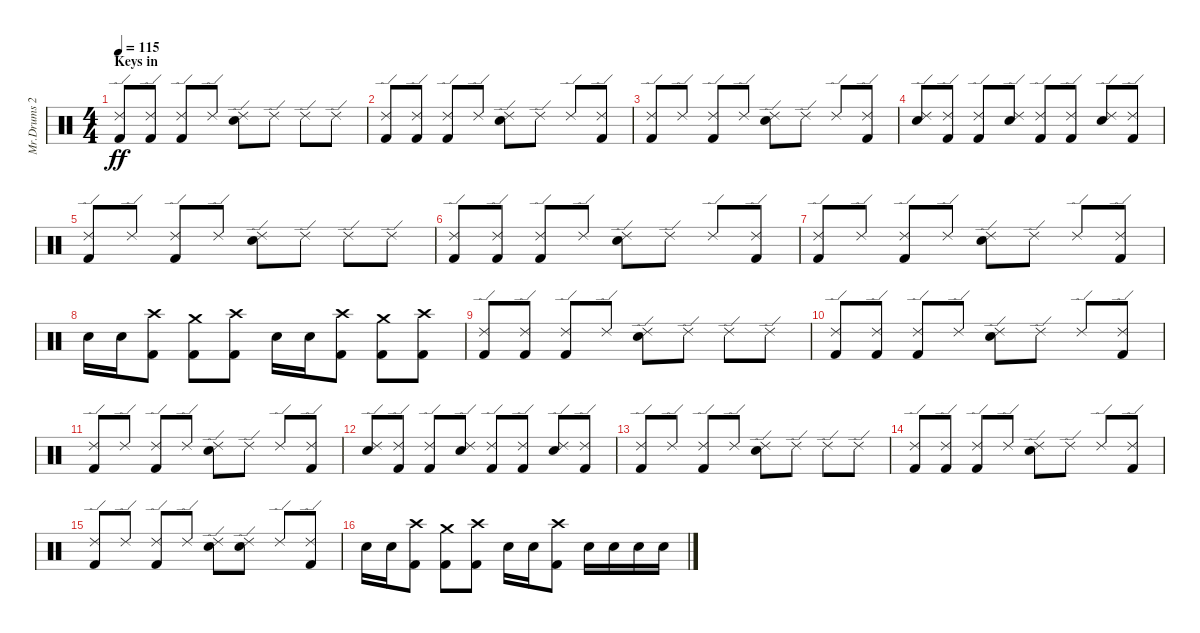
\track ("Mr.Drums 2" "Mr.Drums 2") {instrument percussion}
\staff {score}
\articulation defaults
\ts (4 4)
\section ("" "Keys in ")
\tempo 115
\clef neutral
\ks c
("Ride (edge) 2" "Kick (hit) 2").8{dy ff} ("Ride (edge) 2" "Kick (hit) 2").8 ("Ride (edge) 2" "Kick (hit) 2").8 "Ride (edge) 2".8 ("Ride (edge) 2" "Electric Snare (hit)").8 "Ride (edge) 2".8 "Ride (edge) 2".8 "Ride (edge) 2".8 |
("Ride (edge) 2" "Kick (hit) 2").8 ("Ride (edge) 2" "Kick (hit) 2").8 ("Ride (edge) 2" "Kick (hit) 2").8 "Ride (edge) 2".8 ("Ride (edge) 2" "Electric Snare (hit)").8 "Ride (edge) 2".8 "Ride (edge) 2".8 ("Ride (edge) 2" "Kick (hit) 2").8 |
("Ride (edge) 2" "Kick (hit) 2").8 "Ride (edge) 2".8 ("Ride (edge) 2" "Kick (hit) 2").8 "Ride (edge) 2".8 ("Ride (edge) 2" "Electric Snare (hit)").8 "Ride (edge) 2".8 "Ride (edge) 2".8 ("Ride (edge) 2" "Kick (hit) 2").8 |
("Ride (edge) 2" "Electric Snare (hit)").8 ("Ride (edge) 2" "Kick (hit) 2").8 ("Ride (edge) 2" "Kick (hit) 2").8 ("Ride (edge) 2" "Electric Snare (hit)").8 ("Ride (edge) 2" "Kick (hit) 2").8 ("Ride (edge) 2" "Kick (hit) 2").8 ("Ride (edge) 2" "Electric Snare (hit)").8 ("Ride (edge) 2" "Kick (hit) 2").8 |
("Ride (edge) 2" "Kick (hit) 2").8 "Ride (edge) 2".8 ("Ride (edge) 2" "Kick (hit) 2").8 "Ride (edge) 2".8 ("Ride (edge) 2" "Electric Snare (hit)").8 "Ride (edge) 2".8 "Ride (edge) 2".8 "Ride (edge) 2".8 |
("Ride (edge) 2" "Kick (hit) 2").8 ("Ride (edge) 2" "Kick (hit) 2").8 ("Ride (edge) 2" "Kick (hit) 2").8 "Ride (edge) 2".8 ("Ride (edge) 2" "Electric Snare (hit)").8 "Ride (edge) 2".8 "Ride (edge) 2".8 ("Ride (edge) 2" "Kick (hit) 2").8 |
("Ride (edge) 2" "Kick (hit) 2").8 "Ride (edge) 2".8 ("Ride (edge) 2" "Kick (hit) 2").8 "Ride (edge) 2".8 ("Ride (edge) 2" "Electric Snare (hit)").8 "Ride (edge) 2".8 "Ride (edge) 2".8 ("Ride (edge) 2" "Kick (hit) 2").8 |
"Electric Snare (hit)".16 "Electric Snare (hit)".16 ("Crash high (hit)" "Kick (hit) 2").8 ("Crash medium (hit)" "Kick (hit) 2").8 ("Crash high (hit)" "Kick (hit) 2").8 "Electric Snare (hit)".16 "Electric Snare (hit)".16 ("Crash high (hit)" "Kick (hit) 2").8 ("Crash medium (hit)" "Kick (hit) 2").8 ("Crash high (hit)" "Kick (hit) 2").8 |
("Ride (edge) 2" "Kick (hit) 2").8 ("Ride (edge) 2" "Kick (hit) 2").8 ("Ride (edge) 2" "Kick (hit) 2").8 "Ride (edge) 2".8 ("Ride (edge) 2" "Electric Snare (hit)").8 "Ride (edge) 2".8 "Ride (edge) 2".8 "Ride (edge) 2".8 |
("Ride (edge) 2" "Kick (hit) 2").8 ("Ride (edge) 2" "Kick (hit) 2").8 ("Ride (edge) 2" "Kick (hit) 2").8 "Ride (edge) 2".8 ("Ride (edge) 2" "Electric Snare (hit)").8 "Ride (edge) 2".8 "Ride (edge) 2".8 ("Ride (edge) 2" "Kick (hit) 2").8 |
("Ride (edge) 2" "Kick (hit) 2").8 "Ride (edge) 2".8 ("Ride (edge) 2" "Kick (hit) 2").8 "Ride (edge) 2".8 ("Ride (edge) 2" "Electric Snare (hit)").8 "Ride (edge) 2".8 "Ride (edge) 2".8 ("Ride (edge) 2" "Kick (hit) 2").8 |
("Ride (edge) 2" "Electric Snare (hit)").8 ("Ride (edge) 2" "Kick (hit) 2").8 ("Ride (edge) 2" "Kick (hit) 2").8 ("Ride (edge) 2" "Electric Snare (hit)").8 ("Ride (edge) 2" "Kick (hit) 2").8 ("Ride (edge) 2" "Kick (hit) 2").8 ("Ride (edge) 2" "Electric Snare (hit)").8 ("Ride (edge) 2" "Kick (hit) 2").8 |
("Ride (edge) 2" "Kick (hit) 2").8 "Ride (edge) 2".8 ("Ride (edge) 2" "Kick (hit) 2").8 "Ride (edge) 2".8 ("Ride (edge) 2" "Electric Snare (hit)").8 "Ride (edge) 2".8 "Ride (edge) 2".8 "Ride (edge) 2".8 |
("Ride (edge) 2" "Kick (hit) 2").8 ("Ride (edge) 2" "Kick (hit) 2").8 ("Ride (edge) 2" "Kick (hit) 2").8 "Ride (edge) 2".8 ("Ride (edge) 2" "Electric Snare (hit)").8 "Ride (edge) 2".8 "Ride (edge) 2".8 ("Ride (edge) 2" "Kick (hit) 2").8 |
("Ride (edge) 2" "Kick (hit) 2").8 "Ride (edge) 2".8 ("Ride (edge) 2" "Kick (hit) 2").8 "Ride (edge) 2".8 ("Ride (edge) 2" "Electric Snare (hit)").8 ("Ride (edge) 2" "Electric Snare (hit)").8 "Ride (edge) 2".8 ("Ride (edge) 2" "Kick (hit) 2").8 |
"Electric Snare (hit)".16 "Electric Snare (hit)".16 ("Crash high (hit)" "Kick (hit) 2").8 ("Crash medium (hit)" "Kick (hit) 2").8 ("Crash high (hit)" "Kick (hit) 2").8 "Electric Snare (hit)".16 "Electric Snare (hit)".16 ("Crash high (hit)" "Kick (hit) 2").8 "Electric Snare (hit)".16 "Electric Snare (hit)".16 "Electric Snare (hit)".16 "Electric Snare (hit)".16
